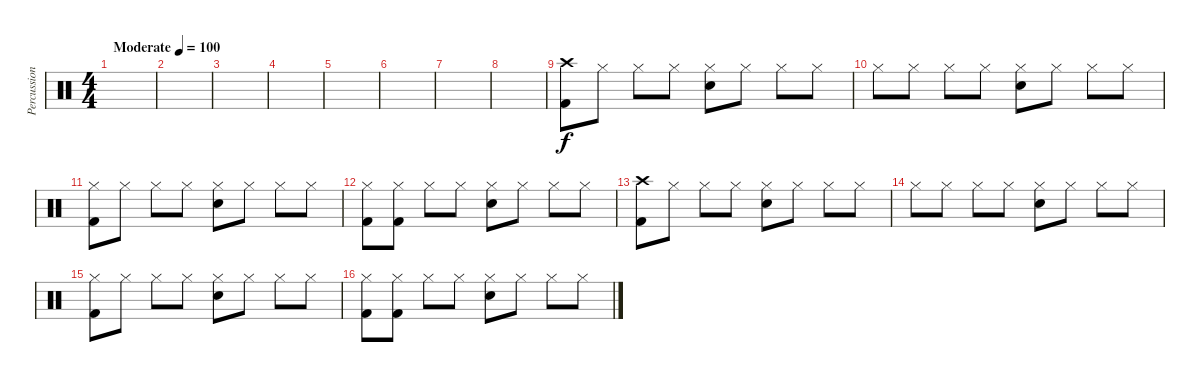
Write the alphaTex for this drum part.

\track ("Percussion" "Percussion") {instrument percussion}
\staff {score}
\articulation defaults
\ts (4 4)
\tempo (100 "Moderate")
\clef neutral
\ks c
|
|
|
|
|
|
|
|
("Crash high (hit)" "Kick (hit) 2").8 "Hi-Hat (closed)".8 "Hi-Hat (closed)".8 "Hi-Hat (closed)".8 ("Hi-Hat (closed)" "Electric Snare (hit)").8 "Hi-Hat (closed)".8 "Hi-Hat (closed)".8 "Hi-Hat (closed)".8 |
"Hi-Hat (closed)".8 "Hi-Hat (closed)".8 "Hi-Hat (closed)".8 "Hi-Hat (closed)".8 ("Hi-Hat (closed)" "Electric Snare (hit)").8 "Hi-Hat (closed)".8 "Hi-Hat (closed)".8 "Hi-Hat (closed)".8 |
("Hi-Hat (closed)" "Kick (hit) 2").8 "Hi-Hat (closed)".8 "Hi-Hat (closed)".8 "Hi-Hat (closed)".8 ("Hi-Hat (closed)" "Electric Snare (hit)").8 "Hi-Hat (closed)".8 "Hi-Hat (closed)".8 "Hi-Hat (closed)".8 |
("Hi-Hat (closed)" "Kick (hit) 2").8 ("Hi-Hat (closed)" "Kick (hit) 2").8 "Hi-Hat (closed)".8 "Hi-Hat (closed)".8 ("Hi-Hat (closed)" "Electric Snare (hit)").8 "Hi-Hat (closed)".8 "Hi-Hat (closed)".8 "Hi-Hat (closed)".8 |
("Crash high (hit)" "Kick (hit) 2").8 "Hi-Hat (closed)".8 "Hi-Hat (closed)".8 "Hi-Hat (closed)".8 ("Hi-Hat (closed)" "Electric Snare (hit)").8 "Hi-Hat (closed)".8 "Hi-Hat (closed)".8 "Hi-Hat (closed)".8 |
"Hi-Hat (closed)".8 "Hi-Hat (closed)".8 "Hi-Hat (closed)".8 "Hi-Hat (closed)".8 ("Hi-Hat (closed)" "Electric Snare (hit)").8 "Hi-Hat (closed)".8 "Hi-Hat (closed)".8 "Hi-Hat (closed)".8 |
("Hi-Hat (closed)" "Kick (hit) 2").8 "Hi-Hat (closed)".8 "Hi-Hat (closed)".8 "Hi-Hat (closed)".8 ("Hi-Hat (closed)" "Electric Snare (hit)").8 "Hi-Hat (closed)".8 "Hi-Hat (closed)".8 "Hi-Hat (closed)".8 |
("Hi-Hat (closed)" "Kick (hit) 2").8 ("Hi-Hat (closed)" "Kick (hit) 2").8 "Hi-Hat (closed)".8 "Hi-Hat (closed)".8 ("Hi-Hat (closed)" "Electric Snare (hit)").8 "Hi-Hat (closed)".8 "Hi-Hat (closed)".8 "Hi-Hat (closed)".8
